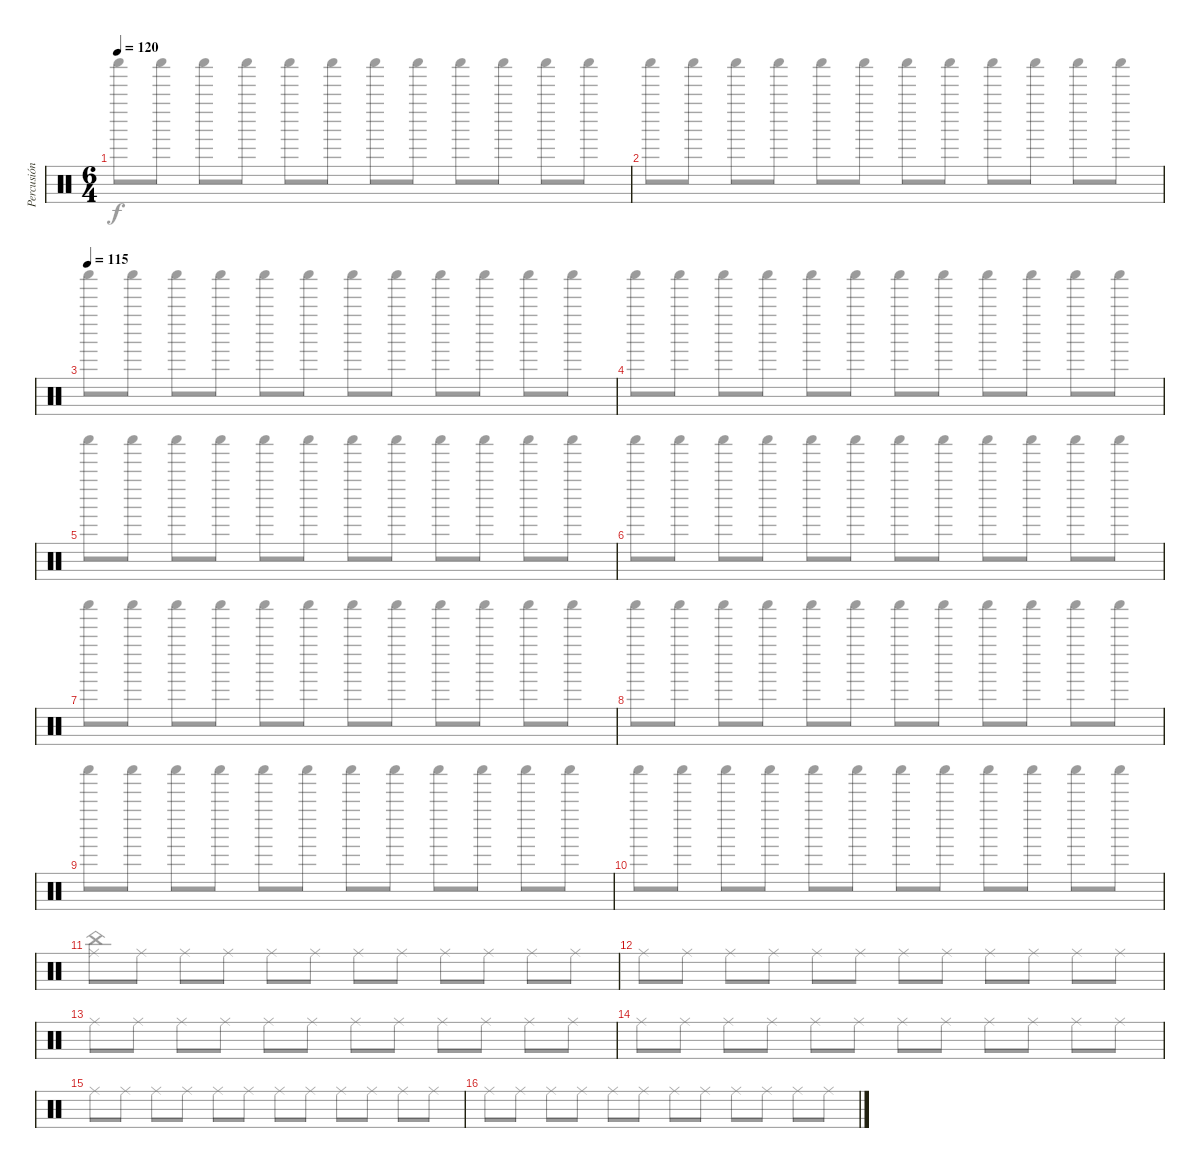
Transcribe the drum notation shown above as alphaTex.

\track ("Percusión" "Percusión") {instrument percussion}
\staff {score}
\articulation defaults
\voice
\ts (6 4)
\tempo 120
\clef neutral
\ks c
|
|
\tempo 115
|
|
|
|
|
|
|
|
|
|
|
|
|
\voice
\clef neutral
\ks c "Shaker (hit)".8{dy f} "Shaker (hit)".8 "Shaker (hit)".8 "Shaker (hit)".8 "Shaker (hit)".8 "Shaker (hit)".8 "Shaker (hit)".8 "Shaker (hit)".8 "Shaker (hit)".8 "Shaker (hit)".8 "Shaker (hit)".8 "Shaker (hit)".8
|
"Shaker (hit)".8 "Shaker (hit)".8 "Shaker (hit)".8 "Shaker (hit)".8 "Shaker (hit)".8 "Shaker (hit)".8 "Shaker (hit)".8 "Shaker (hit)".8 "Shaker (hit)".8 "Shaker (hit)".8 "Shaker (hit)".8 "Shaker (hit)".8 |
"Shaker (hit)".8 "Shaker (hit)".8 "Shaker (hit)".8 "Shaker (hit)".8 "Shaker (hit)".8 "Shaker (hit)".8 "Shaker (hit)".8 "Shaker (hit)".8 "Shaker (hit)".8 "Shaker (hit)".8 "Shaker (hit)".8 "Shaker (hit)".8 |
"Shaker (hit)".8 "Shaker (hit)".8 "Shaker (hit)".8 "Shaker (hit)".8 "Shaker (hit)".8 "Shaker (hit)".8 "Shaker (hit)".8 "Shaker (hit)".8 "Shaker (hit)".8 "Shaker (hit)".8 "Shaker (hit)".8 "Shaker (hit)".8 |
"Shaker (hit)".8 "Shaker (hit)".8 "Shaker (hit)".8 "Shaker (hit)".8 "Shaker (hit)".8 "Shaker (hit)".8 "Shaker (hit)".8 "Shaker (hit)".8 "Shaker (hit)".8 "Shaker (hit)".8 "Shaker (hit)".8 "Shaker (hit)".8 |
"Shaker (hit)".8 "Shaker (hit)".8 "Shaker (hit)".8 "Shaker (hit)".8 "Shaker (hit)".8 "Shaker (hit)".8 "Shaker (hit)".8 "Shaker (hit)".8 "Shaker (hit)".8 "Shaker (hit)".8 "Shaker (hit)".8 "Shaker (hit)".8 |
"Shaker (hit)".8 "Shaker (hit)".8 "Shaker (hit)".8 "Shaker (hit)".8 "Shaker (hit)".8 "Shaker (hit)".8 "Shaker (hit)".8 "Shaker (hit)".8 "Shaker (hit)".8 "Shaker (hit)".8 "Shaker (hit)".8 "Shaker (hit)".8 |
"Shaker (hit)".8 "Shaker (hit)".8 "Shaker (hit)".8 "Shaker (hit)".8 "Shaker (hit)".8 "Shaker (hit)".8 "Shaker (hit)".8 "Shaker (hit)".8 "Shaker (hit)".8 "Shaker (hit)".8 "Shaker (hit)".8 "Shaker (hit)".8 |
"Shaker (hit)".8 "Shaker (hit)".8 "Shaker (hit)".8 "Shaker (hit)".8 "Shaker (hit)".8 "Shaker (hit)".8 "Shaker (hit)".8 "Shaker (hit)".8 "Shaker (hit)".8 "Shaker (hit)".8 "Shaker (hit)".8 "Shaker (hit)".8 |
"Shaker (hit)".8 "Shaker (hit)".8 "Shaker (hit)".8 "Shaker (hit)".8 "Shaker (hit)".8 "Shaker (hit)".8 "Shaker (hit)".8 "Shaker (hit)".8 "Shaker (hit)".8 "Shaker (hit)".8 "Shaker (hit)".8 "Shaker (hit)".8 |
("Ride (middle)" "China (hit)").8 "Ride (middle)".8 "Ride (middle)".8 "Ride (middle)".8 "Ride (middle)".8 "Ride (middle)".8 "Ride (middle)".8 "Ride (middle)".8 "Ride (middle)".8 "Ride (middle)".8 "Ride (middle)".8 "Ride (middle)".8 |
"Ride (middle)".8 "Ride (middle)".8 "Ride (middle)".8 "Ride (middle)".8 "Ride (middle)".8 "Ride (middle)".8 "Ride (middle)".8 "Ride (middle)".8 "Ride (middle)".8 "Ride (middle)".8 "Ride (middle)".8 "Ride (middle)".8 |
"Ride (middle)".8 "Ride (middle)".8 "Ride (middle)".8 "Ride (middle)".8 "Ride (middle)".8 "Ride (middle)".8 "Ride (middle)".8 "Ride (middle)".8 "Ride (middle)".8 "Ride (middle)".8 "Ride (middle)".8 "Ride (middle)".8 |
"Ride (middle)".8 "Ride (middle)".8 "Ride (middle)".8 "Ride (middle)".8 "Ride (middle)".8 "Ride (middle)".8 "Ride (middle)".8 "Ride (middle)".8 "Ride (middle)".8 "Ride (middle)".8 "Ride (middle)".8 "Ride (middle)".8 |
"Ride (middle)".8 "Ride (middle)".8 "Ride (middle)".8 "Ride (middle)".8 "Ride (middle)".8 "Ride (middle)".8 "Ride (middle)".8 "Ride (middle)".8 "Ride (middle)".8 "Ride (middle)".8 "Ride (middle)".8 "Ride (middle)".8 |
"Ride (middle)".8 "Ride (middle)".8 "Ride (middle)".8 "Ride (middle)".8 "Ride (middle)".8 "Ride (middle)".8 "Ride (middle)".8 "Ride (middle)".8 "Ride (middle)".8 "Ride (middle)".8 "Ride (middle)".8 "Ride (middle)".8
